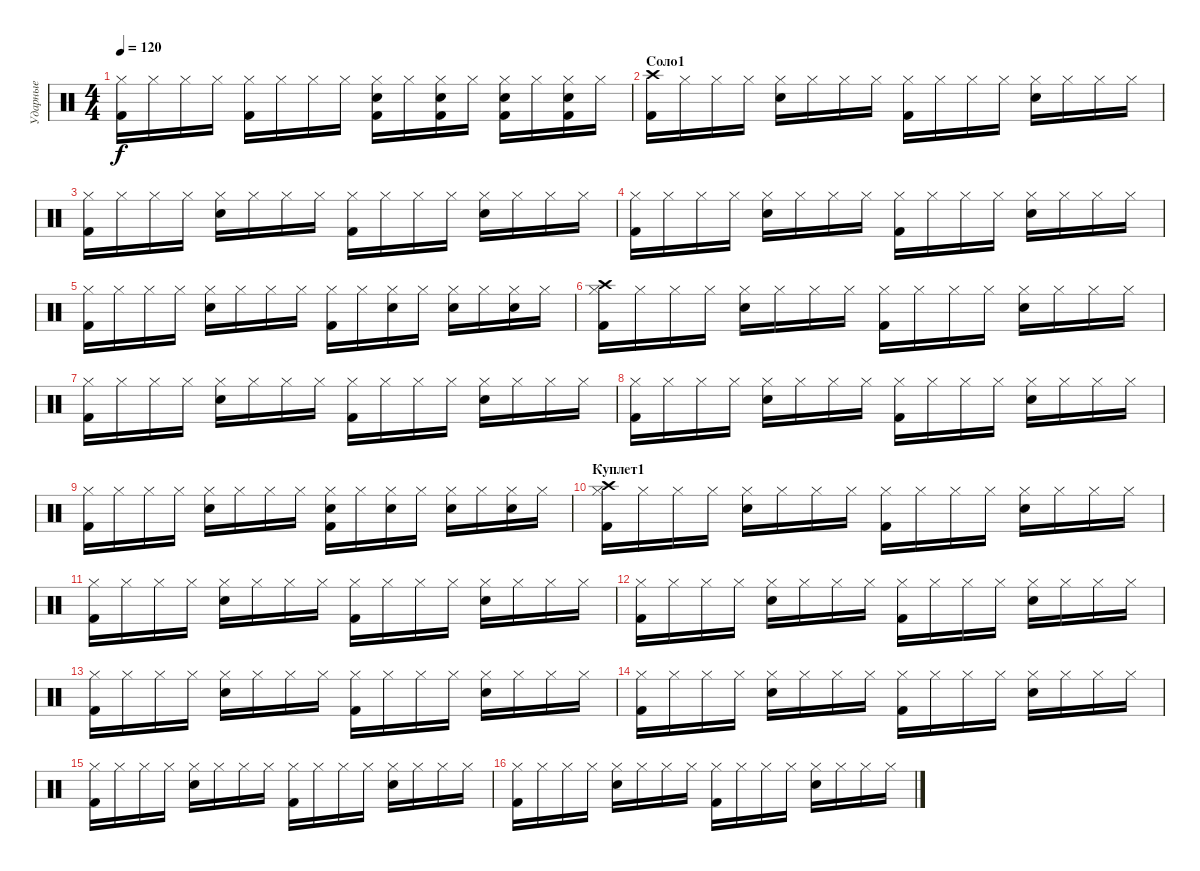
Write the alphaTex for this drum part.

\track ("Ударные" "Ударные") {instrument percussion}
\staff {score}
\articulation defaults
\ts (4 4)
\tempo 120
\clef neutral
\ks c
("Kick (hit) 2" "Hi-Hat (closed)").16{dy f} "Hi-Hat (closed)".16 "Hi-Hat (closed)".16 "Hi-Hat (closed)".16 ("Kick (hit) 2" "Hi-Hat (closed)").16 "Hi-Hat (closed)".16 "Hi-Hat (closed)".16 "Hi-Hat (closed)".16 ("Kick (hit) 2" "Hi-Hat (closed)" "Snare (hit) 2").16 "Hi-Hat (closed)".16 ("Kick (hit) 2" "Hi-Hat (closed)" "Snare (hit) 2").16 "Hi-Hat (closed)".16 ("Kick (hit) 2" "Hi-Hat (closed)" "Snare (hit) 2").16 "Hi-Hat (closed)".16 ("Kick (hit) 2" "Hi-Hat (closed)" "Snare (hit) 2").16 "Hi-Hat (closed)".16 |
\section ("" "Соло1")
("Kick (hit) 2" "Crash high (hit)").16 "Hi-Hat (closed)".16 "Hi-Hat (closed)".16 "Hi-Hat (closed)".16 ("Hi-Hat (closed)" "Snare (hit) 2").16 "Hi-Hat (closed)".16 "Hi-Hat (closed)".16 "Hi-Hat (closed)".16 ("Kick (hit) 2" "Hi-Hat (closed)").16 "Hi-Hat (closed)".16 "Hi-Hat (closed)".16 "Hi-Hat (closed)".16 ("Hi-Hat (closed)" "Snare (hit) 2").16 "Hi-Hat (closed)".16 "Hi-Hat (closed)".16 "Hi-Hat (closed)".16 |
("Kick (hit) 2" "Hi-Hat (closed)").16 "Hi-Hat (closed)".16 "Hi-Hat (closed)".16 "Hi-Hat (closed)".16 ("Hi-Hat (closed)" "Snare (hit) 2").16 "Hi-Hat (closed)".16 "Hi-Hat (closed)".16 "Hi-Hat (closed)".16 ("Kick (hit) 2" "Hi-Hat (closed)").16 "Hi-Hat (closed)".16 "Hi-Hat (closed)".16 "Hi-Hat (closed)".16 ("Hi-Hat (closed)" "Snare (hit) 2").16 "Hi-Hat (closed)".16 "Hi-Hat (closed)".16 "Hi-Hat (closed)".16 |
("Kick (hit) 2" "Hi-Hat (closed)").16 "Hi-Hat (closed)".16 "Hi-Hat (closed)".16 "Hi-Hat (closed)".16 ("Hi-Hat (closed)" "Snare (hit) 2").16 "Hi-Hat (closed)".16 "Hi-Hat (closed)".16 "Hi-Hat (closed)".16 ("Kick (hit) 2" "Hi-Hat (closed)").16 "Hi-Hat (closed)".16 "Hi-Hat (closed)".16 "Hi-Hat (closed)".16 ("Hi-Hat (closed)" "Snare (hit) 2").16 "Hi-Hat (closed)".16 "Hi-Hat (closed)".16 "Hi-Hat (closed)".16 |
("Kick (hit) 2" "Hi-Hat (closed)").16 "Hi-Hat (closed)".16 "Hi-Hat (closed)".16 "Hi-Hat (closed)".16 ("Hi-Hat (closed)" "Snare (hit) 2").16 "Hi-Hat (closed)".16 "Hi-Hat (closed)".16 "Hi-Hat (closed)".16 ("Kick (hit) 2" "Hi-Hat (closed)").16 "Hi-Hat (closed)".16 ("Hi-Hat (closed)" "Snare (hit) 2").16 "Hi-Hat (closed)".16 ("Hi-Hat (closed)" "Snare (hit) 2").16 "Hi-Hat (closed)".16 ("Hi-Hat (closed)" "Snare (hit) 2").16 "Hi-Hat (closed)".16 |
("Kick (hit) 2" "Hi-Hat (closed)" "Crash high (hit)").16 "Hi-Hat (closed)".16 "Hi-Hat (closed)".16 "Hi-Hat (closed)".16 ("Hi-Hat (closed)" "Snare (hit) 2").16 "Hi-Hat (closed)".16 "Hi-Hat (closed)".16 "Hi-Hat (closed)".16 ("Kick (hit) 2" "Hi-Hat (closed)").16 "Hi-Hat (closed)".16 "Hi-Hat (closed)".16 "Hi-Hat (closed)".16 ("Hi-Hat (closed)" "Snare (hit) 2").16 "Hi-Hat (closed)".16 "Hi-Hat (closed)".16 "Hi-Hat (closed)".16 |
("Kick (hit) 2" "Hi-Hat (closed)").16 "Hi-Hat (closed)".16 "Hi-Hat (closed)".16 "Hi-Hat (closed)".16 ("Hi-Hat (closed)" "Snare (hit) 2").16 "Hi-Hat (closed)".16 "Hi-Hat (closed)".16 "Hi-Hat (closed)".16 ("Kick (hit) 2" "Hi-Hat (closed)").16 "Hi-Hat (closed)".16 "Hi-Hat (closed)".16 "Hi-Hat (closed)".16 ("Hi-Hat (closed)" "Snare (hit) 2").16 "Hi-Hat (closed)".16 "Hi-Hat (closed)".16 "Hi-Hat (closed)".16 |
("Kick (hit) 2" "Hi-Hat (closed)").16 "Hi-Hat (closed)".16 "Hi-Hat (closed)".16 "Hi-Hat (closed)".16 ("Hi-Hat (closed)" "Snare (hit) 2").16 "Hi-Hat (closed)".16 "Hi-Hat (closed)".16 "Hi-Hat (closed)".16 ("Kick (hit) 2" "Hi-Hat (closed)").16 "Hi-Hat (closed)".16 "Hi-Hat (closed)".16 "Hi-Hat (closed)".16 ("Hi-Hat (closed)" "Snare (hit) 2").16 "Hi-Hat (closed)".16 "Hi-Hat (closed)".16 "Hi-Hat (closed)".16 |
("Kick (hit) 2" "Hi-Hat (closed)").16 "Hi-Hat (closed)".16 "Hi-Hat (closed)".16 "Hi-Hat (closed)".16 ("Hi-Hat (closed)" "Snare (hit) 2").16 "Hi-Hat (closed)".16 "Hi-Hat (closed)".16 "Hi-Hat (closed)".16 ("Kick (hit) 2" "Hi-Hat (closed)" "Snare (hit) 2").16 "Hi-Hat (closed)".16 ("Hi-Hat (closed)" "Snare (hit) 2").16 "Hi-Hat (closed)".16 ("Hi-Hat (closed)" "Snare (hit) 2").16 "Hi-Hat (closed)".16 ("Hi-Hat (closed)" "Snare (hit) 2").16 "Hi-Hat (closed)".16 |
\section ("" "Куплет1")
("Kick (hit) 2" "Hi-Hat (closed)" "Crash high (hit)").16 "Hi-Hat (closed)".16 "Hi-Hat (closed)".16 "Hi-Hat (closed)".16 ("Hi-Hat (closed)" "Snare (hit) 2").16 "Hi-Hat (closed)".16 "Hi-Hat (closed)".16 "Hi-Hat (closed)".16 ("Kick (hit) 2" "Hi-Hat (closed)").16 "Hi-Hat (closed)".16 "Hi-Hat (closed)".16 "Hi-Hat (closed)".16 ("Hi-Hat (closed)" "Snare (hit) 2").16 "Hi-Hat (closed)".16 "Hi-Hat (closed)".16 "Hi-Hat (closed)".16 |
("Kick (hit) 2" "Hi-Hat (closed)").16 "Hi-Hat (closed)".16 "Hi-Hat (closed)".16 "Hi-Hat (closed)".16 ("Hi-Hat (closed)" "Snare (hit) 2").16 "Hi-Hat (closed)".16 "Hi-Hat (closed)".16 "Hi-Hat (closed)".16 ("Kick (hit) 2" "Hi-Hat (closed)").16 "Hi-Hat (closed)".16 "Hi-Hat (closed)".16 "Hi-Hat (closed)".16 ("Hi-Hat (closed)" "Snare (hit) 2").16 "Hi-Hat (closed)".16 "Hi-Hat (closed)".16 "Hi-Hat (closed)".16 |
("Kick (hit) 2" "Hi-Hat (closed)").16 "Hi-Hat (closed)".16 "Hi-Hat (closed)".16 "Hi-Hat (closed)".16 ("Hi-Hat (closed)" "Snare (hit) 2").16 "Hi-Hat (closed)".16 "Hi-Hat (closed)".16 "Hi-Hat (closed)".16 ("Kick (hit) 2" "Hi-Hat (closed)").16 "Hi-Hat (closed)".16 "Hi-Hat (closed)".16 "Hi-Hat (closed)".16 ("Hi-Hat (closed)" "Snare (hit) 2").16 "Hi-Hat (closed)".16 "Hi-Hat (closed)".16 "Hi-Hat (closed)".16 |
("Kick (hit) 2" "Hi-Hat (closed)").16 "Hi-Hat (closed)".16 "Hi-Hat (closed)".16 "Hi-Hat (closed)".16 ("Hi-Hat (closed)" "Snare (hit) 2").16 "Hi-Hat (closed)".16 "Hi-Hat (closed)".16 "Hi-Hat (closed)".16 ("Kick (hit) 2" "Hi-Hat (closed)").16 "Hi-Hat (closed)".16 "Hi-Hat (closed)".16 "Hi-Hat (closed)".16 ("Hi-Hat (closed)" "Snare (hit) 2").16 "Hi-Hat (closed)".16 "Hi-Hat (closed)".16 "Hi-Hat (closed)".16 |
("Kick (hit) 2" "Hi-Hat (closed)").16 "Hi-Hat (closed)".16 "Hi-Hat (closed)".16 "Hi-Hat (closed)".16 ("Hi-Hat (closed)" "Snare (hit) 2").16 "Hi-Hat (closed)".16 "Hi-Hat (closed)".16 "Hi-Hat (closed)".16 ("Kick (hit) 2" "Hi-Hat (closed)").16 "Hi-Hat (closed)".16 "Hi-Hat (closed)".16 "Hi-Hat (closed)".16 ("Hi-Hat (closed)" "Snare (hit) 2").16 "Hi-Hat (closed)".16 "Hi-Hat (closed)".16 "Hi-Hat (closed)".16 |
("Kick (hit) 2" "Hi-Hat (closed)").16 "Hi-Hat (closed)".16 "Hi-Hat (closed)".16 "Hi-Hat (closed)".16 ("Hi-Hat (closed)" "Snare (hit) 2").16 "Hi-Hat (closed)".16 "Hi-Hat (closed)".16 "Hi-Hat (closed)".16 ("Kick (hit) 2" "Hi-Hat (closed)").16 "Hi-Hat (closed)".16 "Hi-Hat (closed)".16 "Hi-Hat (closed)".16 ("Hi-Hat (closed)" "Snare (hit) 2").16 "Hi-Hat (closed)".16 "Hi-Hat (closed)".16 "Hi-Hat (closed)".16 |
("Kick (hit) 2" "Hi-Hat (closed)").16 "Hi-Hat (closed)".16 "Hi-Hat (closed)".16 "Hi-Hat (closed)".16 ("Hi-Hat (closed)" "Snare (hit) 2").16 "Hi-Hat (closed)".16 "Hi-Hat (closed)".16 "Hi-Hat (closed)".16 ("Kick (hit) 2" "Hi-Hat (closed)").16 "Hi-Hat (closed)".16 "Hi-Hat (closed)".16 "Hi-Hat (closed)".16 ("Hi-Hat (closed)" "Snare (hit) 2").16 "Hi-Hat (closed)".16 "Hi-Hat (closed)".16 "Hi-Hat (closed)".16
